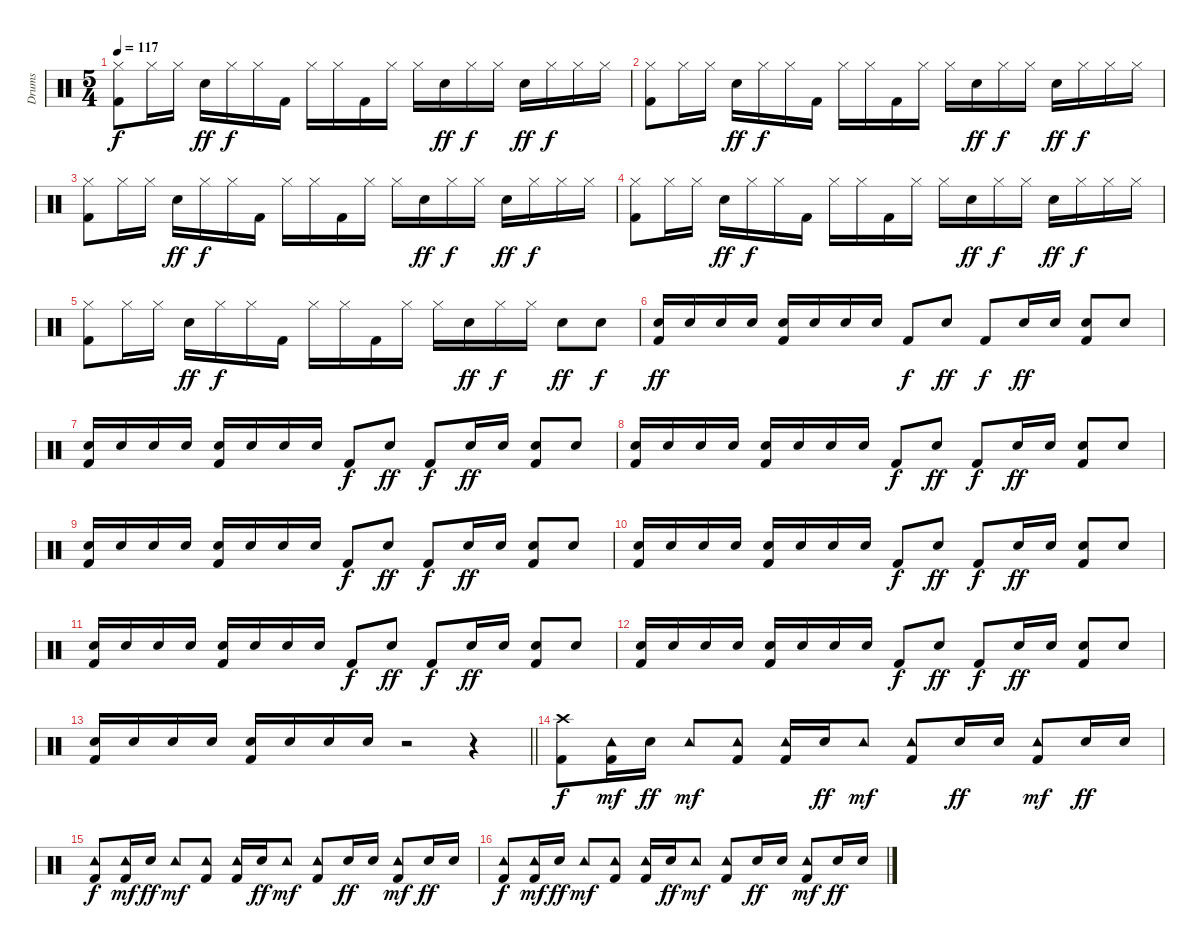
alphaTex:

\track ("Drums" "Drums") {instrument percussion}
\staff {score}
\articulation defaults
\ts (5 4)
\tempo 117
\clef neutral
\ks c
("Kick (hit) 2" "Hi-Hat (closed)").8{dy f} "Hi-Hat (closed)".16 "Hi-Hat (closed)".16 "Electric Snare (hit)".16{dy ff} "Hi-Hat (closed)".16{dy f} "Hi-Hat (closed)".16 "Kick (hit) 2".16 "Hi-Hat (closed)".16 "Hi-Hat (closed)".16 "Kick (hit) 2".16 "Hi-Hat (closed)".16 "Hi-Hat (closed)".16 "Electric Snare (hit)".16{dy ff} "Hi-Hat (closed)".16{dy f} "Hi-Hat (closed)".16 "Electric Snare (hit)".16{dy ff} "Hi-Hat (closed)".16{dy f} "Hi-Hat (closed)".16 "Hi-Hat (closed)".16 |
("Kick (hit) 2" "Hi-Hat (closed)").8 "Hi-Hat (closed)".16 "Hi-Hat (closed)".16 "Electric Snare (hit)".16{dy ff} "Hi-Hat (closed)".16{dy f} "Hi-Hat (closed)".16 "Kick (hit) 2".16 "Hi-Hat (closed)".16 "Hi-Hat (closed)".16 "Kick (hit) 2".16 "Hi-Hat (closed)".16 "Hi-Hat (closed)".16 "Electric Snare (hit)".16{dy ff} "Hi-Hat (closed)".16{dy f} "Hi-Hat (closed)".16 "Electric Snare (hit)".16{dy ff} "Hi-Hat (closed)".16{dy f} "Hi-Hat (closed)".16 "Hi-Hat (closed)".16 |
("Kick (hit) 2" "Hi-Hat (closed)").8 "Hi-Hat (closed)".16 "Hi-Hat (closed)".16 "Electric Snare (hit)".16{dy ff} "Hi-Hat (closed)".16{dy f} "Hi-Hat (closed)".16 "Kick (hit) 2".16 "Hi-Hat (closed)".16 "Hi-Hat (closed)".16 "Kick (hit) 2".16 "Hi-Hat (closed)".16 "Hi-Hat (closed)".16 "Electric Snare (hit)".16{dy ff} "Hi-Hat (closed)".16{dy f} "Hi-Hat (closed)".16 "Electric Snare (hit)".16{dy ff} "Hi-Hat (closed)".16{dy f} "Hi-Hat (closed)".16 "Hi-Hat (closed)".16 |
("Kick (hit) 2" "Hi-Hat (closed)").8 "Hi-Hat (closed)".16 "Hi-Hat (closed)".16 "Electric Snare (hit)".16{dy ff} "Hi-Hat (closed)".16{dy f} "Hi-Hat (closed)".16 "Kick (hit) 2".16 "Hi-Hat (closed)".16 "Hi-Hat (closed)".16 "Kick (hit) 2".16 "Hi-Hat (closed)".16 "Hi-Hat (closed)".16 "Electric Snare (hit)".16{dy ff} "Hi-Hat (closed)".16{dy f} "Hi-Hat (closed)".16 "Electric Snare (hit)".16{dy ff} "Hi-Hat (closed)".16{dy f} "Hi-Hat (closed)".16 "Hi-Hat (closed)".16 |
("Kick (hit) 2" "Hi-Hat (closed)").8 "Hi-Hat (closed)".16 "Hi-Hat (closed)".16 "Electric Snare (hit)".16{dy ff} "Hi-Hat (closed)".16{dy f} "Hi-Hat (closed)".16 "Kick (hit) 2".16 "Hi-Hat (closed)".16 "Hi-Hat (closed)".16 "Kick (hit) 2".16 "Hi-Hat (closed)".16 "Hi-Hat (closed)".16 "Electric Snare (hit)".16{dy ff} "Hi-Hat (closed)".16{dy f} "Hi-Hat (closed)".16 "Electric Snare (hit)".8{dy ff} "Electric Snare (hit)".8{dy f} |
("Kick (hit) 2" "Electric Snare (hit)").16{dy ff} "Electric Snare (hit)".16 "Electric Snare (hit)".16 "Electric Snare (hit)".16 ("Kick (hit) 2" "Electric Snare (hit)").16 "Electric Snare (hit)".16 "Electric Snare (hit)".16 "Electric Snare (hit)".16 "Kick (hit) 2".8{dy f} "Electric Snare (hit)".8{dy ff} "Kick (hit) 2".8{dy f} "Electric Snare (hit)".16{dy ff} "Electric Snare (hit)".16 ("Kick (hit) 2" "Electric Snare (hit)").8 "Electric Snare (hit)".8 |
("Kick (hit) 2" "Electric Snare (hit)").16 "Electric Snare (hit)".16 "Electric Snare (hit)".16 "Electric Snare (hit)".16 ("Kick (hit) 2" "Electric Snare (hit)").16 "Electric Snare (hit)".16 "Electric Snare (hit)".16 "Electric Snare (hit)".16 "Kick (hit) 2".8{dy f} "Electric Snare (hit)".8{dy ff} "Kick (hit) 2".8{dy f} "Electric Snare (hit)".16{dy ff} "Electric Snare (hit)".16 ("Kick (hit) 2" "Electric Snare (hit)").8 "Electric Snare (hit)".8 |
("Kick (hit) 2" "Electric Snare (hit)").16 "Electric Snare (hit)".16 "Electric Snare (hit)".16 "Electric Snare (hit)".16 ("Kick (hit) 2" "Electric Snare (hit)").16 "Electric Snare (hit)".16 "Electric Snare (hit)".16 "Electric Snare (hit)".16 "Kick (hit) 2".8{dy f} "Electric Snare (hit)".8{dy ff} "Kick (hit) 2".8{dy f} "Electric Snare (hit)".16{dy ff} "Electric Snare (hit)".16 ("Kick (hit) 2" "Electric Snare (hit)").8 "Electric Snare (hit)".8 |
("Kick (hit) 2" "Electric Snare (hit)").16 "Electric Snare (hit)".16 "Electric Snare (hit)".16 "Electric Snare (hit)".16 ("Kick (hit) 2" "Electric Snare (hit)").16 "Electric Snare (hit)".16 "Electric Snare (hit)".16 "Electric Snare (hit)".16 "Kick (hit) 2".8{dy f} "Electric Snare (hit)".8{dy ff} "Kick (hit) 2".8{dy f} "Electric Snare (hit)".16{dy ff} "Electric Snare (hit)".16 ("Kick (hit) 2" "Electric Snare (hit)").8 "Electric Snare (hit)".8 |
("Kick (hit) 2" "Electric Snare (hit)").16 "Electric Snare (hit)".16 "Electric Snare (hit)".16 "Electric Snare (hit)".16 ("Kick (hit) 2" "Electric Snare (hit)").16 "Electric Snare (hit)".16 "Electric Snare (hit)".16 "Electric Snare (hit)".16 "Kick (hit) 2".8{dy f} "Electric Snare (hit)".8{dy ff} "Kick (hit) 2".8{dy f} "Electric Snare (hit)".16{dy ff} "Electric Snare (hit)".16 ("Kick (hit) 2" "Electric Snare (hit)").8 "Electric Snare (hit)".8 |
("Kick (hit) 2" "Electric Snare (hit)").16 "Electric Snare (hit)".16 "Electric Snare (hit)".16 "Electric Snare (hit)".16 ("Kick (hit) 2" "Electric Snare (hit)").16 "Electric Snare (hit)".16 "Electric Snare (hit)".16 "Electric Snare (hit)".16 "Kick (hit) 2".8{dy f} "Electric Snare (hit)".8{dy ff} "Kick (hit) 2".8{dy f} "Electric Snare (hit)".16{dy ff} "Electric Snare (hit)".16 ("Kick (hit) 2" "Electric Snare (hit)").8 "Electric Snare (hit)".8 |
("Kick (hit) 2" "Electric Snare (hit)").16 "Electric Snare (hit)".16 "Electric Snare (hit)".16 "Electric Snare (hit)".16 ("Kick (hit) 2" "Electric Snare (hit)").16 "Electric Snare (hit)".16 "Electric Snare (hit)".16 "Electric Snare (hit)".16 "Kick (hit) 2".8{dy f} "Electric Snare (hit)".8{dy ff} "Kick (hit) 2".8{dy f} "Electric Snare (hit)".16{dy ff} "Electric Snare (hit)".16 ("Kick (hit) 2" "Electric Snare (hit)").8 "Electric Snare (hit)".8 |
\barLineRight lightlight
("Kick (hit) 2" "Electric Snare (hit)").16 "Electric Snare (hit)".16 "Electric Snare (hit)".16 "Electric Snare (hit)".16 ("Kick (hit) 2" "Electric Snare (hit)").16 "Electric Snare (hit)".16 "Electric Snare (hit)".16 "Electric Snare (hit)".16 r.2 r.4 |
("Kick (hit) 2" "Crash high (hit)").8{dy f} ("Kick (hit) 2" "Tambourine (hit)").16{dy mf} "Electric Snare (hit)".16{dy ff} "Tambourine (hit)".8{dy mf} ("Kick (hit) 2" "Tambourine (hit)").8 ("Kick (hit) 2" "Tambourine (hit)").16 "Electric Snare (hit)".16{dy ff} "Tambourine (hit)".8{dy mf} ("Kick (hit) 2" "Tambourine (hit)").8 "Electric Snare (hit)".16{dy ff} "Electric Snare (hit)".16 ("Kick (hit) 2" "Tambourine (hit)").8{dy mf} "Electric Snare (hit)".16{dy ff} "Electric Snare (hit)".16 |
("Kick (hit) 2" "Tambourine (hit)").8{dy f} ("Kick (hit) 2" "Tambourine (hit)").16{dy mf} "Electric Snare (hit)".16{dy ff} "Tambourine (hit)".8{dy mf} ("Kick (hit) 2" "Tambourine (hit)").8 ("Kick (hit) 2" "Tambourine (hit)").16 "Electric Snare (hit)".16{dy ff} "Tambourine (hit)".8{dy mf} ("Kick (hit) 2" "Tambourine (hit)").8 "Electric Snare (hit)".16{dy ff} "Electric Snare (hit)".16 ("Kick (hit) 2" "Tambourine (hit)").8{dy mf} "Electric Snare (hit)".16{dy ff} "Electric Snare (hit)".16 |
("Kick (hit) 2" "Tambourine (hit)").8{dy f} ("Kick (hit) 2" "Tambourine (hit)").16{dy mf} "Electric Snare (hit)".16{dy ff} "Tambourine (hit)".8{dy mf} ("Kick (hit) 2" "Tambourine (hit)").8 ("Kick (hit) 2" "Tambourine (hit)").16 "Electric Snare (hit)".16{dy ff} "Tambourine (hit)".8{dy mf} ("Kick (hit) 2" "Tambourine (hit)").8 "Electric Snare (hit)".16{dy ff} "Electric Snare (hit)".16 ("Kick (hit) 2" "Tambourine (hit)").8{dy mf} "Electric Snare (hit)".16{dy ff} "Electric Snare (hit)".16
